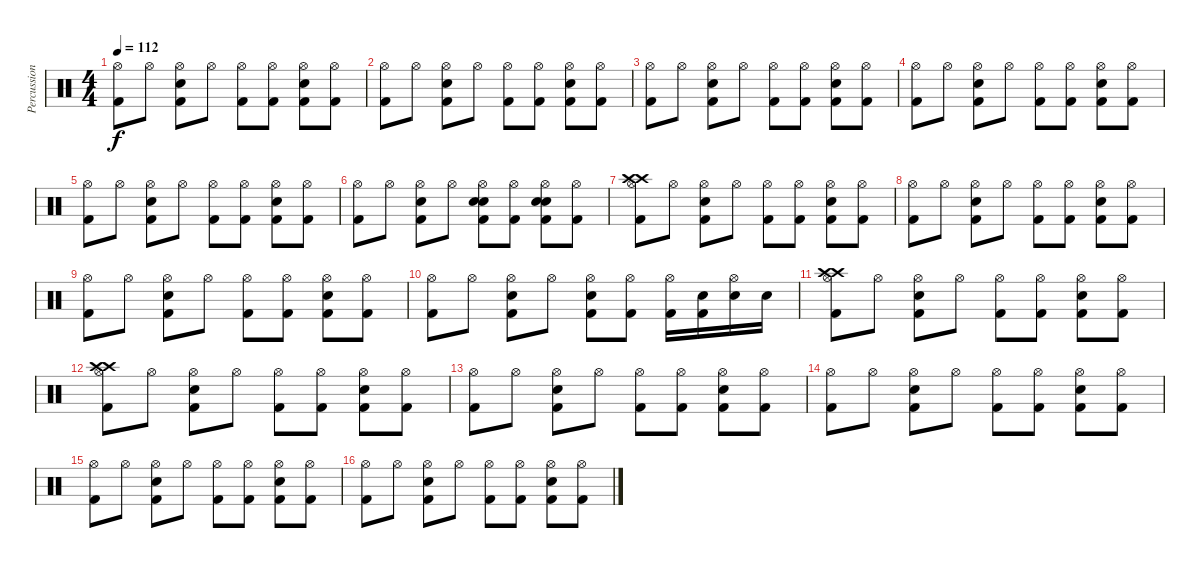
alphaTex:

\track ("Percussion" "Percussion") {instrument percussion}
\staff {score}
\articulation defaults
\ts (4 4)
\tempo 112
\clef neutral
\ks c
("Hi-Hat (open)" "Kick (hit) 2").8{dy f} "Hi-Hat (open)".8 ("Hi-Hat (open)" "Electric Snare (hit)" "Kick (hit) 2").8 "Hi-Hat (open)".8 ("Hi-Hat (open)" "Kick (hit) 2").8 ("Hi-Hat (open)" "Kick (hit) 2").8 ("Hi-Hat (open)" "Electric Snare (hit)" "Kick (hit) 2").8 ("Hi-Hat (open)" "Kick (hit) 2").8 |
("Hi-Hat (open)" "Kick (hit) 2").8 "Hi-Hat (open)".8 ("Hi-Hat (open)" "Electric Snare (hit)" "Kick (hit) 2").8 "Hi-Hat (open)".8 ("Hi-Hat (open)" "Kick (hit) 2").8 ("Hi-Hat (open)" "Kick (hit) 2").8 ("Hi-Hat (open)" "Electric Snare (hit)" "Kick (hit) 2").8 ("Hi-Hat (open)" "Kick (hit) 2").8 |
("Hi-Hat (open)" "Kick (hit) 2").8 "Hi-Hat (open)".8 ("Hi-Hat (open)" "Electric Snare (hit)" "Kick (hit) 2").8 "Hi-Hat (open)".8 ("Hi-Hat (open)" "Kick (hit) 2").8 ("Hi-Hat (open)" "Kick (hit) 2").8 ("Hi-Hat (open)" "Electric Snare (hit)" "Kick (hit) 2").8 ("Hi-Hat (open)" "Kick (hit) 2").8 |
("Hi-Hat (open)" "Kick (hit) 2").8 "Hi-Hat (open)".8 ("Hi-Hat (open)" "Electric Snare (hit)" "Kick (hit) 2").8 "Hi-Hat (open)".8 ("Hi-Hat (open)" "Kick (hit) 2").8 ("Hi-Hat (open)" "Kick (hit) 2").8 ("Hi-Hat (open)" "Electric Snare (hit)" "Kick (hit) 2").8 ("Hi-Hat (open)" "Kick (hit) 2").8 |
("Hi-Hat (open)" "Kick (hit) 2").8 "Hi-Hat (open)".8 ("Hi-Hat (open)" "Electric Snare (hit)" "Kick (hit) 2").8 "Hi-Hat (open)".8 ("Hi-Hat (open)" "Kick (hit) 2").8 ("Hi-Hat (open)" "Kick (hit) 2").8 ("Hi-Hat (open)" "Electric Snare (hit)" "Kick (hit) 2").8 ("Hi-Hat (open)" "Kick (hit) 2").8 |
("Hi-Hat (open)" "Kick (hit) 2").8 "Hi-Hat (open)".8 ("Hi-Hat (open)" "Electric Snare (hit)" "Kick (hit) 2").8 "Hi-Hat (open)".8 ("Hi-Hat (open)" "Electric Snare (hit)" "Electric Snare (hit)" "Kick (hit) 2").8 ("Hi-Hat (open)" "Kick (hit) 2").8 ("Hi-Hat (open)" "Electric Snare (hit)" "Electric Snare (hit)" "Kick (hit) 2").8 ("Hi-Hat (open)" "Kick (hit) 2").8 |
("Hi-Hat (open)" "Crash high (hit)" "Crash high (hit)" "Kick (hit) 2").8 "Hi-Hat (open)".8 ("Hi-Hat (open)" "Electric Snare (hit)" "Kick (hit) 2").8 "Hi-Hat (open)".8 ("Hi-Hat (open)" "Kick (hit) 2").8 ("Hi-Hat (open)" "Kick (hit) 2").8 ("Hi-Hat (open)" "Electric Snare (hit)" "Kick (hit) 2").8 ("Hi-Hat (open)" "Kick (hit) 2").8 |
("Hi-Hat (open)" "Kick (hit) 2").8 "Hi-Hat (open)".8 ("Hi-Hat (open)" "Electric Snare (hit)" "Kick (hit) 2").8 "Hi-Hat (open)".8 ("Hi-Hat (open)" "Kick (hit) 2").8 ("Hi-Hat (open)" "Kick (hit) 2").8 ("Hi-Hat (open)" "Electric Snare (hit)" "Kick (hit) 2").8 ("Hi-Hat (open)" "Kick (hit) 2").8 |
("Hi-Hat (open)" "Kick (hit) 2").8 "Hi-Hat (open)".8 ("Hi-Hat (open)" "Electric Snare (hit)" "Kick (hit) 2").8 "Hi-Hat (open)".8 ("Hi-Hat (open)" "Kick (hit) 2").8 ("Hi-Hat (open)" "Kick (hit) 2").8 ("Hi-Hat (open)" "Electric Snare (hit)" "Kick (hit) 2").8 ("Hi-Hat (open)" "Kick (hit) 2").8 |
("Hi-Hat (open)" "Kick (hit) 2").8 "Hi-Hat (open)".8 ("Hi-Hat (open)" "Electric Snare (hit)" "Kick (hit) 2").8 "Hi-Hat (open)".8 ("Hi-Hat (open)" "Electric Snare (hit)" "Kick (hit) 2").8 ("Hi-Hat (open)" "Kick (hit) 2").8 ("Hi-Hat (open)" "Kick (hit) 2").16 ("Electric Snare (hit)" "Kick (hit) 2").16 ("Hi-Hat (open)" "Electric Snare (hit)").16 "Snare (hit) 2".16 |
("Hi-Hat (open)" "Crash high (hit)" "Crash high (hit)" "Kick (hit) 2").8 "Hi-Hat (open)".8 ("Hi-Hat (open)" "Electric Snare (hit)" "Kick (hit) 2").8 "Hi-Hat (open)".8 ("Hi-Hat (open)" "Kick (hit) 2").8 ("Hi-Hat (open)" "Kick (hit) 2").8 ("Hi-Hat (open)" "Electric Snare (hit)" "Kick (hit) 2").8 ("Hi-Hat (open)" "Kick (hit) 2").8 |
("Hi-Hat (open)" "Crash high (hit)" "Crash high (hit)" "Kick (hit) 2").8 "Hi-Hat (open)".8 ("Hi-Hat (open)" "Electric Snare (hit)" "Kick (hit) 2").8 "Hi-Hat (open)".8 ("Hi-Hat (open)" "Kick (hit) 2").8 ("Hi-Hat (open)" "Kick (hit) 2").8 ("Hi-Hat (open)" "Electric Snare (hit)" "Kick (hit) 2").8 ("Hi-Hat (open)" "Kick (hit) 2").8 |
("Hi-Hat (open)" "Kick (hit) 2").8 "Hi-Hat (open)".8 ("Hi-Hat (open)" "Electric Snare (hit)" "Kick (hit) 2").8 "Hi-Hat (open)".8 ("Hi-Hat (open)" "Kick (hit) 2").8 ("Hi-Hat (open)" "Kick (hit) 2").8 ("Hi-Hat (open)" "Electric Snare (hit)" "Kick (hit) 2").8 ("Hi-Hat (open)" "Kick (hit) 2").8 |
("Hi-Hat (open)" "Kick (hit) 2").8 "Hi-Hat (open)".8 ("Hi-Hat (open)" "Electric Snare (hit)" "Kick (hit) 2").8 "Hi-Hat (open)".8 ("Hi-Hat (open)" "Kick (hit) 2").8 ("Hi-Hat (open)" "Kick (hit) 2").8 ("Hi-Hat (open)" "Electric Snare (hit)" "Kick (hit) 2").8 ("Hi-Hat (open)" "Kick (hit) 2").8 |
("Hi-Hat (open)" "Kick (hit) 2").8 "Hi-Hat (open)".8 ("Hi-Hat (open)" "Electric Snare (hit)" "Kick (hit) 2").8 "Hi-Hat (open)".8 ("Hi-Hat (open)" "Kick (hit) 2").8 ("Hi-Hat (open)" "Kick (hit) 2").8 ("Hi-Hat (open)" "Electric Snare (hit)" "Kick (hit) 2").8 ("Hi-Hat (open)" "Kick (hit) 2").8 |
("Hi-Hat (open)" "Kick (hit) 2").8 "Hi-Hat (open)".8 ("Hi-Hat (open)" "Electric Snare (hit)" "Kick (hit) 2").8 "Hi-Hat (open)".8 ("Hi-Hat (open)" "Kick (hit) 2").8 ("Hi-Hat (open)" "Kick (hit) 2").8 ("Hi-Hat (open)" "Electric Snare (hit)" "Kick (hit) 2").8 ("Hi-Hat (open)" "Kick (hit) 2").8
